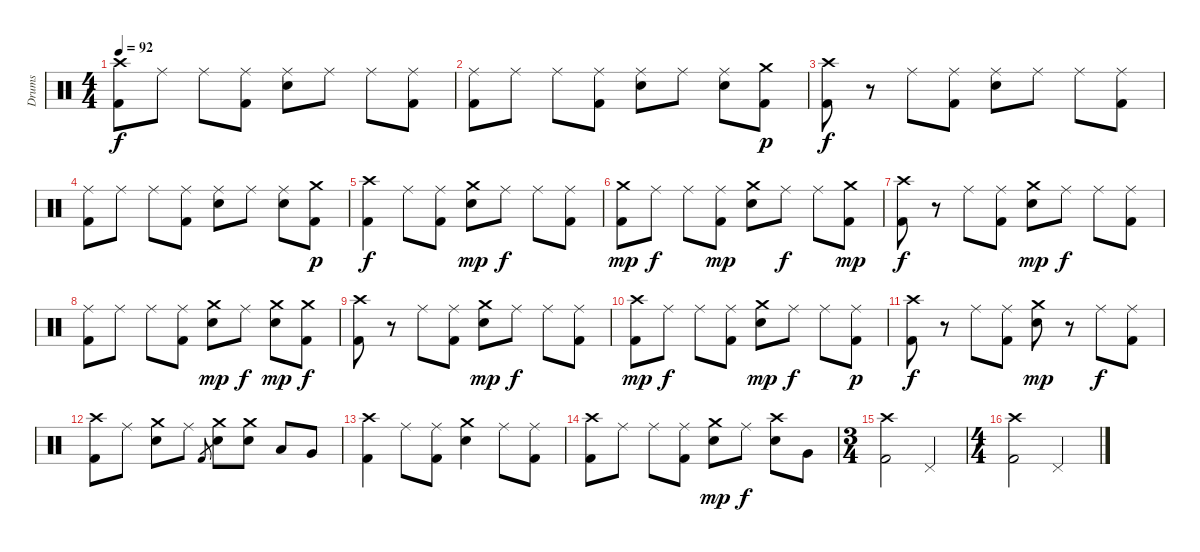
\track ("Drums" "Drums") {instrument percussion}
\staff {score}
\articulation defaults
\ts (4 4)
\tempo 92
\clef neutral
\ks c
("Crash high (hit)" "Kick (hit) 2").8{dy f} "Ride (middle)".8 "Ride (middle)".8 ("Ride (middle)" "Kick (hit) 2").8 ("Ride (middle)" "Snare (hit) 2").8 "Ride (middle)".8 "Ride (middle)".8 ("Ride (middle)" "Kick (hit) 2").8 |
("Ride (middle)" "Kick (hit) 2").8 "Ride (middle)".8 "Ride (middle)".8 ("Ride (middle)" "Kick (hit) 2").8 ("Ride (middle)" "Snare (hit) 2").8 "Ride (middle)".8 ("Ride (middle)" "Snare (hit) 2").8 ("Crash medium (hit)" "Kick (hit) 2").8{dy p} |
("Crash high (hit)" "Kick (hit) 2").8{dy f} r.8 "Ride (middle)".8 ("Ride (middle)" "Kick (hit) 2").8 ("Ride (middle)" "Snare (hit) 2").8 "Ride (middle)".8 "Ride (middle)".8 ("Ride (middle)" "Kick (hit) 2").8 |
("Ride (middle)" "Kick (hit) 2").8 "Ride (middle)".8 "Ride (middle)".8 ("Ride (middle)" "Kick (hit) 2").8 ("Ride (middle)" "Snare (hit) 2").8 "Ride (middle)".8 ("Ride (middle)" "Snare (hit) 2").8 ("Crash medium (hit)" "Kick (hit) 2").8{dy p} |
("Crash high (hit)" "Kick (hit) 2").4{dy f} "Ride (middle)".8 ("Ride (middle)" "Kick (hit) 2").8 ("Crash medium (hit)" "Snare (hit) 2").8{dy mp} "Ride (middle)".8{dy f} "Ride (middle)".8 ("Ride (middle)" "Kick (hit) 2").8 |
("Crash medium (hit)" "Kick (hit) 2").8{dy mp} "Ride (middle)".8{dy f} "Ride (middle)".8 ("Ride (middle)" "Kick (hit) 2").8{dy mp} ("Crash medium (hit)" "Snare (hit) 2").8 "Ride (middle)".8{dy f} "Ride (middle)".8 ("Crash medium (hit)" "Kick (hit) 2").8{dy mp} |
("Crash high (hit)" "Kick (hit) 2").8{dy f} r.8 "Ride (middle)".8 ("Ride (middle)" "Kick (hit) 2").8 ("Crash medium (hit)" "Snare (hit) 2").8{dy mp} "Ride (middle)".8{dy f} "Ride (middle)".8 ("Ride (middle)" "Kick (hit) 2").8 |
("Ride (middle)" "Kick (hit) 2").8 "Ride (middle)".8 "Ride (middle)".8 ("Ride (middle)" "Kick (hit) 2").8 ("Crash medium (hit)" "Snare (hit) 2").8{dy mp} "Ride (middle)".8{dy f} ("Crash medium (hit)" "Snare (hit) 2").8{dy mp} ("Crash medium (hit)" "Kick (hit) 2").8{dy f} |
("Crash high (hit)" "Kick (hit) 2").8 r.8 "Ride (middle)".8 ("Ride (middle)" "Kick (hit) 2").8 ("Crash medium (hit)" "Snare (hit) 2").8{dy mp} "Ride (middle)".8{dy f} "Ride (middle)".8 ("Ride (middle)" "Kick (hit) 2").8 |
("Crash high (hit)" "Kick (hit) 2").8{dy mp} "Ride (middle)".8{dy f} "Ride (middle)".8 ("Ride (middle)" "Kick (hit) 2").8 ("Crash medium (hit)" "Snare (hit) 2").8{dy mp} "Ride (middle)".8{dy f} "Ride (middle)".8 ("Ride (middle)" "Kick (hit) 2").8{dy p} |
("Crash high (hit)" "Kick (hit) 2").8{dy f} r.8 "Ride (middle)".8 ("Ride (middle)" "Kick (hit) 2").8 ("Crash medium (hit)" "Snare (hit) 2").8{dy mp} r.8 "Ride (middle)".8{dy f} ("Ride (middle)" "Kick (hit) 2").8 |
("Crash high (hit)" "Kick (hit) 2").8 "Ride (middle)".8 ("Crash medium (hit)" "Snare (hit) 2").8 "Ride (middle)".8 "Kick (hit) 2".8{gr} ("Crash medium (hit)" "Snare (hit) 2").8 ("Crash medium (hit)" "Snare (hit) 2").8 "Low Tom (hit)".8 "Very Low Tom (hit)".8 |
("Crash high (hit)" "Kick (hit) 2").4 "Ride (middle)".8 ("Ride (middle)" "Kick (hit) 2").8 ("Crash medium (hit)" "Snare (hit) 2").4 "Ride (middle)".8 ("Ride (middle)" "Kick (hit) 2").8 |
("Crash high (hit)" "Kick (hit) 2").8 "Ride (middle)".8 "Ride (middle)".8 ("Ride (middle)" "Kick (hit) 2").8 ("Crash medium (hit)" "Snare (hit) 2").8{dy mp} "Ride (middle)".8{dy f} ("Crash high (hit)" "Snare (hit) 2").8 "Very Low Tom (hit)".8 |
\ts (3 4)
("Crash high (hit)" "Kick (hit) 2").2 "Pedal Hi-Hat (hit)".4 |
\ts (4 4)
("Crash high (hit)" "Kick (hit) 2").2 "Pedal Hi-Hat (hit)".2
